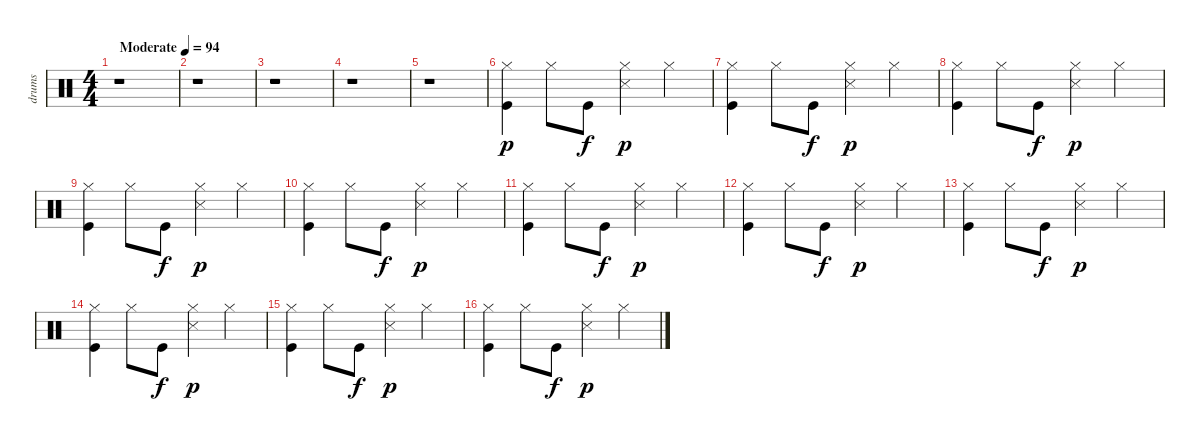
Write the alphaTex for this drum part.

\track ("drums" "drums") {instrument percussion}
\staff {score}
\articulation defaults
\ts (4 4)
\tempo (94 "Moderate")
\clef neutral
\ks c
r.1{dy p} |
r.1 |
r.1 |
r.1 |
r.1 |
("Kick (hit)" "Hi-Hat (closed)").4 "Hi-Hat (closed)".8 "Kick (hit)".8{dy f} ("Hi-Hat (closed)" "Snare (side stick) 3").4{dy p} "Hi-Hat (closed)".4 |
("Kick (hit)" "Hi-Hat (closed)").4 "Hi-Hat (closed)".8 "Kick (hit)".8{dy f} ("Hi-Hat (closed)" "Snare (side stick) 3").4{dy p} "Hi-Hat (closed)".4 |
("Kick (hit)" "Hi-Hat (closed)").4 "Hi-Hat (closed)".8 "Kick (hit)".8{dy f} ("Hi-Hat (closed)" "Snare (side stick) 3").4{dy p} "Hi-Hat (closed)".4 |
("Kick (hit)" "Hi-Hat (closed)").4 "Hi-Hat (closed)".8 "Kick (hit)".8{dy f} ("Hi-Hat (closed)" "Snare (side stick) 3").4{dy p} "Hi-Hat (closed)".4 |
("Kick (hit)" "Hi-Hat (closed)").4 "Hi-Hat (closed)".8 "Kick (hit)".8{dy f} ("Hi-Hat (closed)" "Snare (side stick) 3").4{dy p} "Hi-Hat (closed)".4 |
("Kick (hit)" "Hi-Hat (closed)").4 "Hi-Hat (closed)".8 "Kick (hit)".8{dy f} ("Hi-Hat (closed)" "Snare (side stick) 3").4{dy p} "Hi-Hat (closed)".4 |
("Kick (hit)" "Hi-Hat (closed)").4 "Hi-Hat (closed)".8 "Kick (hit)".8{dy f} ("Hi-Hat (closed)" "Snare (side stick) 3").4{dy p} "Hi-Hat (closed)".4 |
("Kick (hit)" "Hi-Hat (closed)").4 "Hi-Hat (closed)".8 "Kick (hit)".8{dy f} ("Hi-Hat (closed)" "Snare (side stick) 3").4{dy p} "Hi-Hat (closed)".4 |
("Kick (hit)" "Hi-Hat (closed)").4 "Hi-Hat (closed)".8 "Kick (hit)".8{dy f} ("Hi-Hat (closed)" "Snare (side stick) 3").4{dy p} "Hi-Hat (closed)".4 |
("Kick (hit)" "Hi-Hat (closed)").4 "Hi-Hat (closed)".8 "Kick (hit)".8{dy f} ("Hi-Hat (closed)" "Snare (side stick) 3").4{dy p} "Hi-Hat (closed)".4 |
("Kick (hit)" "Hi-Hat (closed)").4 "Hi-Hat (closed)".8 "Kick (hit)".8{dy f} ("Hi-Hat (closed)" "Snare (side stick) 3").4{dy p} "Hi-Hat (closed)".4
